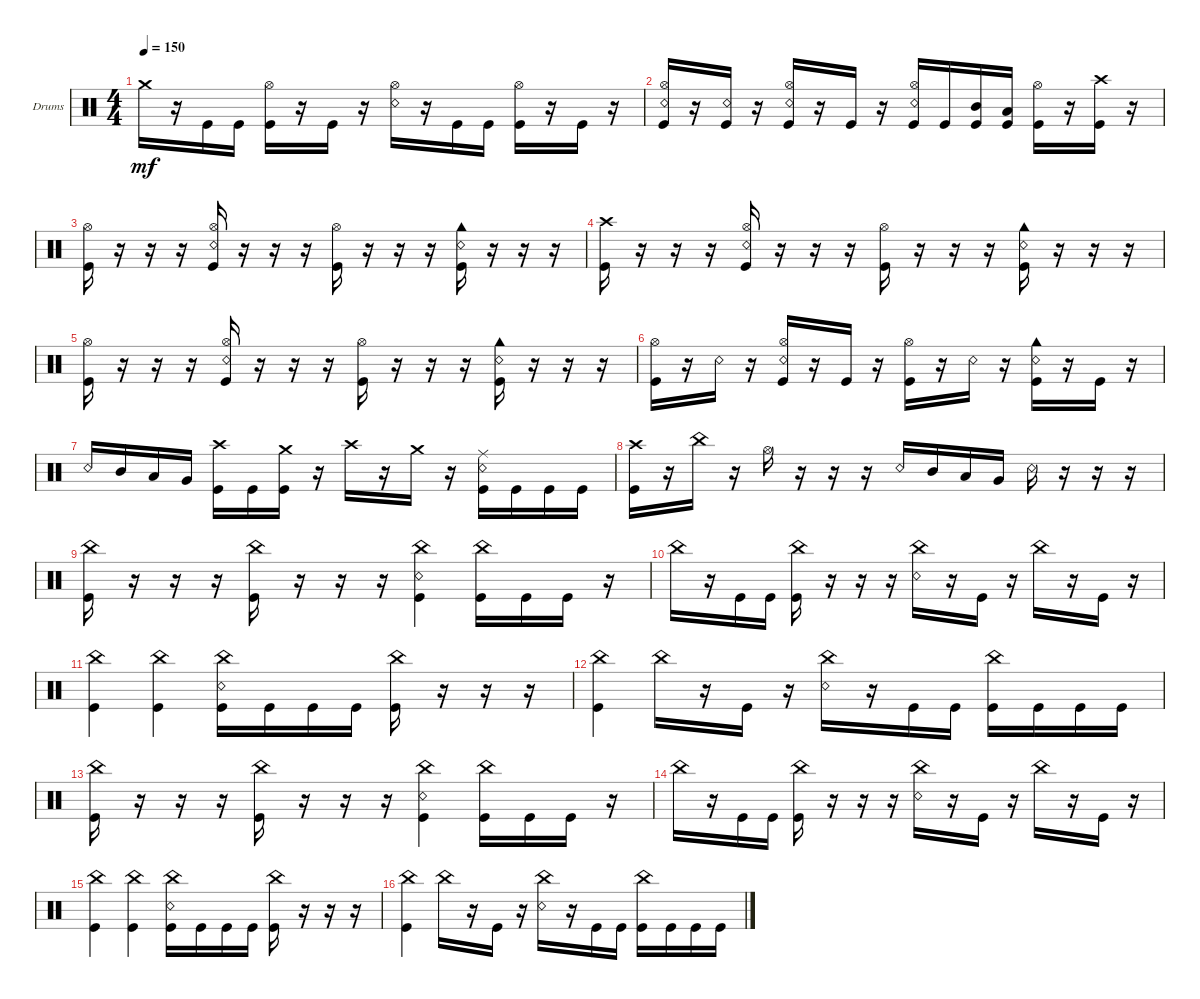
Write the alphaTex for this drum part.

\bracketExtendMode groupsimilarinstruments
\firstSystemTrackNameOrientation horizontal
\otherSystemsTrackNameOrientation horizontal
\track ("Drumkit" "Drums") {instrument percussion}
\staff {score}
\articulation defaults
\ts (4 4)
\tempo 150
\clef neutral
\ks c "Crash medium (hit)".16{dy mf}
r.16 "Kick (hit)".16 "Kick (hit)".16 ("Kick (hit)" "Hi-Hat (open)").16 r.16 "Kick (hit)".16 r.16 ("Snare (rim shot)" "Hi-Hat (open)").16 r.16 "Kick (hit)".16 "Kick (hit)".16 ("Kick (hit)" "Hi-Hat (open)").16 r.16 "Kick (hit)".16 r.16 |
("Kick (hit)" "Snare (rim shot)" "Hi-Hat (open)").16 r.16 ("Kick (hit)" "Snare (rim shot)").16 r.16 ("Kick (hit)" "Hi-Hat (open)" "Snare (rim shot)").16 r.16 "Kick (hit)".16 r.16 ("Kick (hit)" "Snare (rim shot)" "Hi-Hat (open)").16 "Kick (hit)".16 ("Kick (hit)" "Mid Tom (hit)").16 ("Kick (hit)" "Low Tom (hit)").16 ("Kick (hit)" "Hi-Hat (open)").16 r.16 ("Kick (hit)" "Crash high (hit)").16 r.16 |
("Kick (hit)" "Hi-Hat (open)").16 r.16 r.16 r.16 ("Kick (hit)" "Hi-Hat (open)" "Snare (rim shot)").16 r.16 r.16 r.16 ("Kick (hit)" "Hi-Hat (open)").16 r.16 r.16 r.16 ("Kick (hit)" "Snare (rim shot)" "Cowbell high (hit)").16 r.16 r.16 r.16 |
("Kick (hit)" "Crash high (hit)").16 r.16 r.16 r.16 ("Kick (hit)" "Hi-Hat (open)" "Snare (rim shot)").16 r.16 r.16 r.16 ("Kick (hit)" "Hi-Hat (open)").16 r.16 r.16 r.16 ("Kick (hit)" "Snare (rim shot)" "Cowbell high (hit)").16 r.16 r.16 r.16 |
("Kick (hit)" "Hi-Hat (open)").16 r.16 r.16 r.16 ("Kick (hit)" "Hi-Hat (open)" "Snare (rim shot)").16 r.16 r.16 r.16 ("Kick (hit)" "Hi-Hat (open)").16 r.16 r.16 r.16 ("Kick (hit)" "Snare (rim shot)" "Cowbell high (hit)").16 r.16 r.16 r.16 |
("Kick (hit)" "Hi-Hat (open)").16 r.16 "Snare (rim shot)".16 r.16 ("Kick (hit)" "Hi-Hat (open)" "Snare (rim shot)").16 r.16 "Kick (hit)".16 r.16 ("Kick (hit)" "Hi-Hat (open)").16 r.16 "Snare (rim shot)".16 r.16 ("Kick (hit)" "Snare (rim shot)" "Cowbell high (hit)").16 r.16 "Kick (hit)".16 r.16 |
"Snare (rim shot)".16 "Mid Tom (hit)".16 "Low Tom (hit)".16 "Very Low Tom (hit)".16 ("Kick (hit)" "Crash high (hit)").16 "Kick (hit)".16 ("Kick (hit)" "Crash medium (hit)").16 r.16 "Crash high (hit)".16 r.16 "Crash medium (hit)".16 r.16 ("Snare (rim shot)" "Kick (hit)" "Ride (middle)").16 "Kick (hit)".16 "Kick (hit)".16 "Kick (hit)".16 |
("Crash high (hit)" "Kick (hit)").16 r.16 "China (hit)".16 r.16 "Hi-Hat (open)".16 r.16 r.16 r.16 "Snare (rim shot)".16 "Mid Tom (hit)".16 "Low Tom (hit)".16 "Very Low Tom (hit)".16 "Snare (rim shot)".16 r.16 r.16 r.16 |
("Kick (hit)" "China (hit)").16 r.16 r.16 r.16 ("Kick (hit)" "China (hit)").16 r.16 r.16 r.16 ("Kick (hit)" "Snare (rim shot)" "China (hit)").4 ("Kick (hit)" "China (hit)").16 "Kick (hit)".16 "Kick (hit)".16 r.16 |
"China (hit)".16 r.16 "Kick (hit)".16 "Kick (hit)".16 ("Kick (hit)" "China (hit)").16 r.16 r.16 r.16 ("Snare (rim shot)" "China (hit)").16 r.16 "Kick (hit)".16 r.16 "China (hit)".16 r.16 "Kick (hit)".16 r.16 |
("Kick (hit)" "China (hit)").4 ("Kick (hit)" "China (hit)").4 ("Kick (hit)" "Snare (rim shot)" "China (hit)").16 "Kick (hit)".16 "Kick (hit)".16 "Kick (hit)".16 ("Kick (hit)" "China (hit)").16 r.16 r.16 r.16 |
("Kick (hit)" "China (hit)").4 "China (hit)".16 r.16 "Kick (hit)".16 r.16 ("Snare (rim shot)" "China (hit)").16 r.16 "Kick (hit)".16 "Kick (hit)".16 ("Kick (hit)" "China (hit)").16 "Kick (hit)".16 "Kick (hit)".16 "Kick (hit)".16 |
("Kick (hit)" "China (hit)").16 r.16 r.16 r.16 ("Kick (hit)" "China (hit)").16 r.16 r.16 r.16 ("Kick (hit)" "Snare (rim shot)" "China (hit)").4 ("Kick (hit)" "China (hit)").16 "Kick (hit)".16 "Kick (hit)".16 r.16 |
"China (hit)".16 r.16 "Kick (hit)".16 "Kick (hit)".16 ("Kick (hit)" "China (hit)").16 r.16 r.16 r.16 ("Snare (rim shot)" "China (hit)").16 r.16 "Kick (hit)".16 r.16 "China (hit)".16 r.16 "Kick (hit)".16 r.16 |
("Kick (hit)" "China (hit)").4 ("Kick (hit)" "China (hit)").4 ("Kick (hit)" "Snare (rim shot)" "China (hit)").16 "Kick (hit)".16 "Kick (hit)".16 "Kick (hit)".16 ("Kick (hit)" "China (hit)").16 r.16 r.16 r.16 |
("Kick (hit)" "China (hit)").4 "China (hit)".16 r.16 "Kick (hit)".16 r.16 ("Snare (rim shot)" "China (hit)").16 r.16 "Kick (hit)".16 "Kick (hit)".16 ("Kick (hit)" "China (hit)").16 "Kick (hit)".16 "Kick (hit)".16 "Kick (hit)".16
